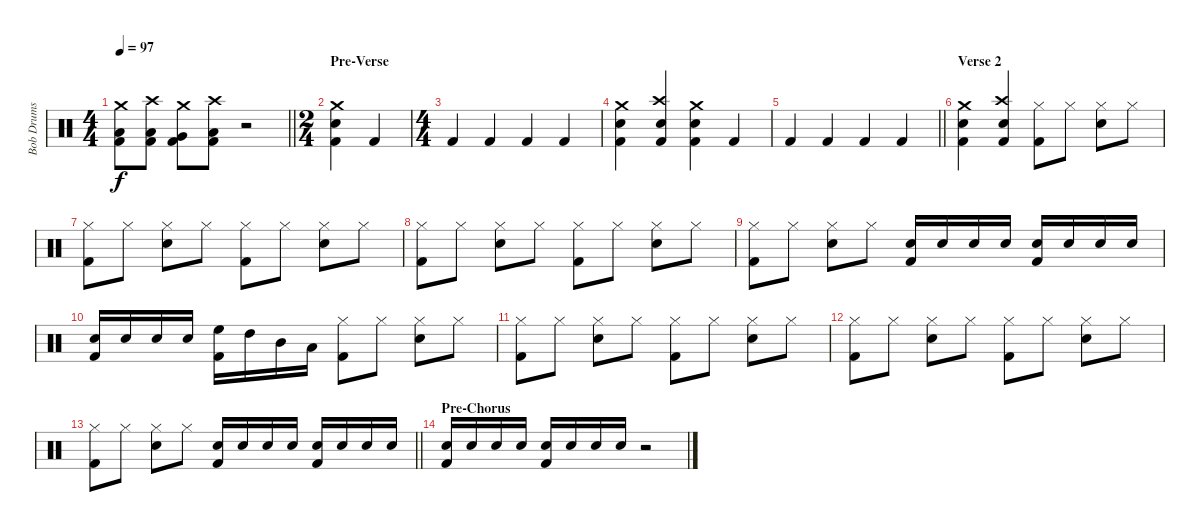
\track ("Bob Drums" "Bob Drums") {instrument percussion}
\staff {score}
\articulation defaults
\ts (4 4)
\tempo 97
\clef neutral
\barLineRight lightlight
\ks c
("Crash medium (hit)" "Low Tom (hit)" "Kick (hit) 2").8{dy f} ("Crash high (hit)" "Low Tom (hit)" "Kick (hit) 2").8 ("Crash medium (hit)" "Very Low Tom (hit)" "Kick (hit) 2").8 ("Crash high (hit)" "Low Floor Tom (hit)" "Kick (hit) 2").8 r.2 |
\ts (2 4)
\section ("" "Pre-Verse")
("Crash medium (hit)" "Snare (hit) 2" "Kick (hit) 2").4 "Kick (hit) 2".4 |
\ts (4 4)
"Kick (hit) 2".4 "Kick (hit) 2".4 "Kick (hit) 2".4 "Kick (hit) 2".4 |
("Crash medium (hit)" "Snare (hit) 2" "Kick (hit) 2").4 ("Crash high (hit)" "Snare (hit) 2" "Kick (hit) 2").4 ("Crash medium (hit)" "Snare (hit) 2" "Kick (hit) 2").4 "Kick (hit) 2".4 |
\barLineRight lightlight "Kick (hit) 2".4 "Kick (hit) 2".4 "Kick (hit) 2".4 "Kick (hit) 2".4
|
\section ("" "Verse 2")
("Crash medium (hit)" "Snare (hit) 2" "Kick (hit) 2").4 ("Crash high (hit)" "Snare (hit) 2" "Kick (hit) 2").4 ("Hi-Hat (closed)" "Kick (hit) 2").8 "Hi-Hat (closed)".8 ("Hi-Hat (closed)" "Snare (hit) 2").8 "Hi-Hat (closed)".8 |
("Hi-Hat (closed)" "Kick (hit) 2").8 "Hi-Hat (closed)".8 ("Hi-Hat (closed)" "Snare (hit) 2").8 "Hi-Hat (closed)".8 ("Hi-Hat (closed)" "Kick (hit) 2").8 "Hi-Hat (closed)".8 ("Hi-Hat (closed)" "Snare (hit) 2").8 "Hi-Hat (closed)".8 |
("Hi-Hat (closed)" "Kick (hit) 2").8 "Hi-Hat (closed)".8 ("Hi-Hat (closed)" "Snare (hit) 2").8 "Hi-Hat (closed)".8 ("Hi-Hat (closed)" "Kick (hit) 2").8 "Hi-Hat (closed)".8 ("Hi-Hat (closed)" "Snare (hit) 2").8 "Hi-Hat (closed)".8 |
("Hi-Hat (closed)" "Kick (hit) 2").8 "Hi-Hat (closed)".8 ("Hi-Hat (closed)" "Snare (hit) 2").8 "Hi-Hat (closed)".8 ("Snare (hit) 2" "Kick (hit) 2").16 "Snare (hit) 2".16 "Snare (hit) 2".16 "Snare (hit) 2".16 ("Snare (hit) 2" "Kick (hit) 2").16 "Snare (hit) 2".16 "Snare (hit) 2".16 "Snare (hit) 2".16 |
("Snare (hit) 2" "Kick (hit) 2").16 "Snare (hit) 2".16 "Snare (hit) 2".16 "Snare (hit) 2".16 ("High Floor Tom (hit)" "Kick (hit) 2").16 "High Tom (hit)".16 "Mid Tom (hit)".16 "Low Tom (hit)".16 ("Hi-Hat (closed)" "Kick (hit) 2").8 "Hi-Hat (closed)".8 ("Hi-Hat (closed)" "Snare (hit) 2").8 "Hi-Hat (closed)".8 |
("Hi-Hat (closed)" "Kick (hit) 2").8 "Hi-Hat (closed)".8 ("Hi-Hat (closed)" "Snare (hit) 2").8 "Hi-Hat (closed)".8 ("Hi-Hat (closed)" "Kick (hit) 2").8 "Hi-Hat (closed)".8 ("Hi-Hat (closed)" "Snare (hit) 2").8 "Hi-Hat (closed)".8 |
("Hi-Hat (closed)" "Kick (hit) 2").8 "Hi-Hat (closed)".8 ("Hi-Hat (closed)" "Snare (hit) 2").8 "Hi-Hat (closed)".8 ("Hi-Hat (closed)" "Kick (hit) 2").8 "Hi-Hat (closed)".8 ("Hi-Hat (closed)" "Snare (hit) 2").8 "Hi-Hat (closed)".8 |
\barLineRight lightlight
("Hi-Hat (closed)" "Kick (hit) 2").8 "Hi-Hat (closed)".8 ("Hi-Hat (closed)" "Snare (hit) 2").8 "Hi-Hat (closed)".8 ("Snare (hit) 2" "Kick (hit) 2").16 "Snare (hit) 2".16 "Snare (hit) 2".16 "Snare (hit) 2".16 ("Snare (hit) 2" "Kick (hit) 2").16 "Snare (hit) 2".16 "Snare (hit) 2".16 "Snare (hit) 2".16 |
\section ("" "Pre-Chorus")
("Snare (hit) 2" "Kick (hit) 2").16 "Snare (hit) 2".16 "Snare (hit) 2".16 "Snare (hit) 2".16 ("Snare (hit) 2" "Kick (hit) 2").16 "Snare (hit) 2".16 "Snare (hit) 2".16 "Snare (hit) 2".16 r.2
